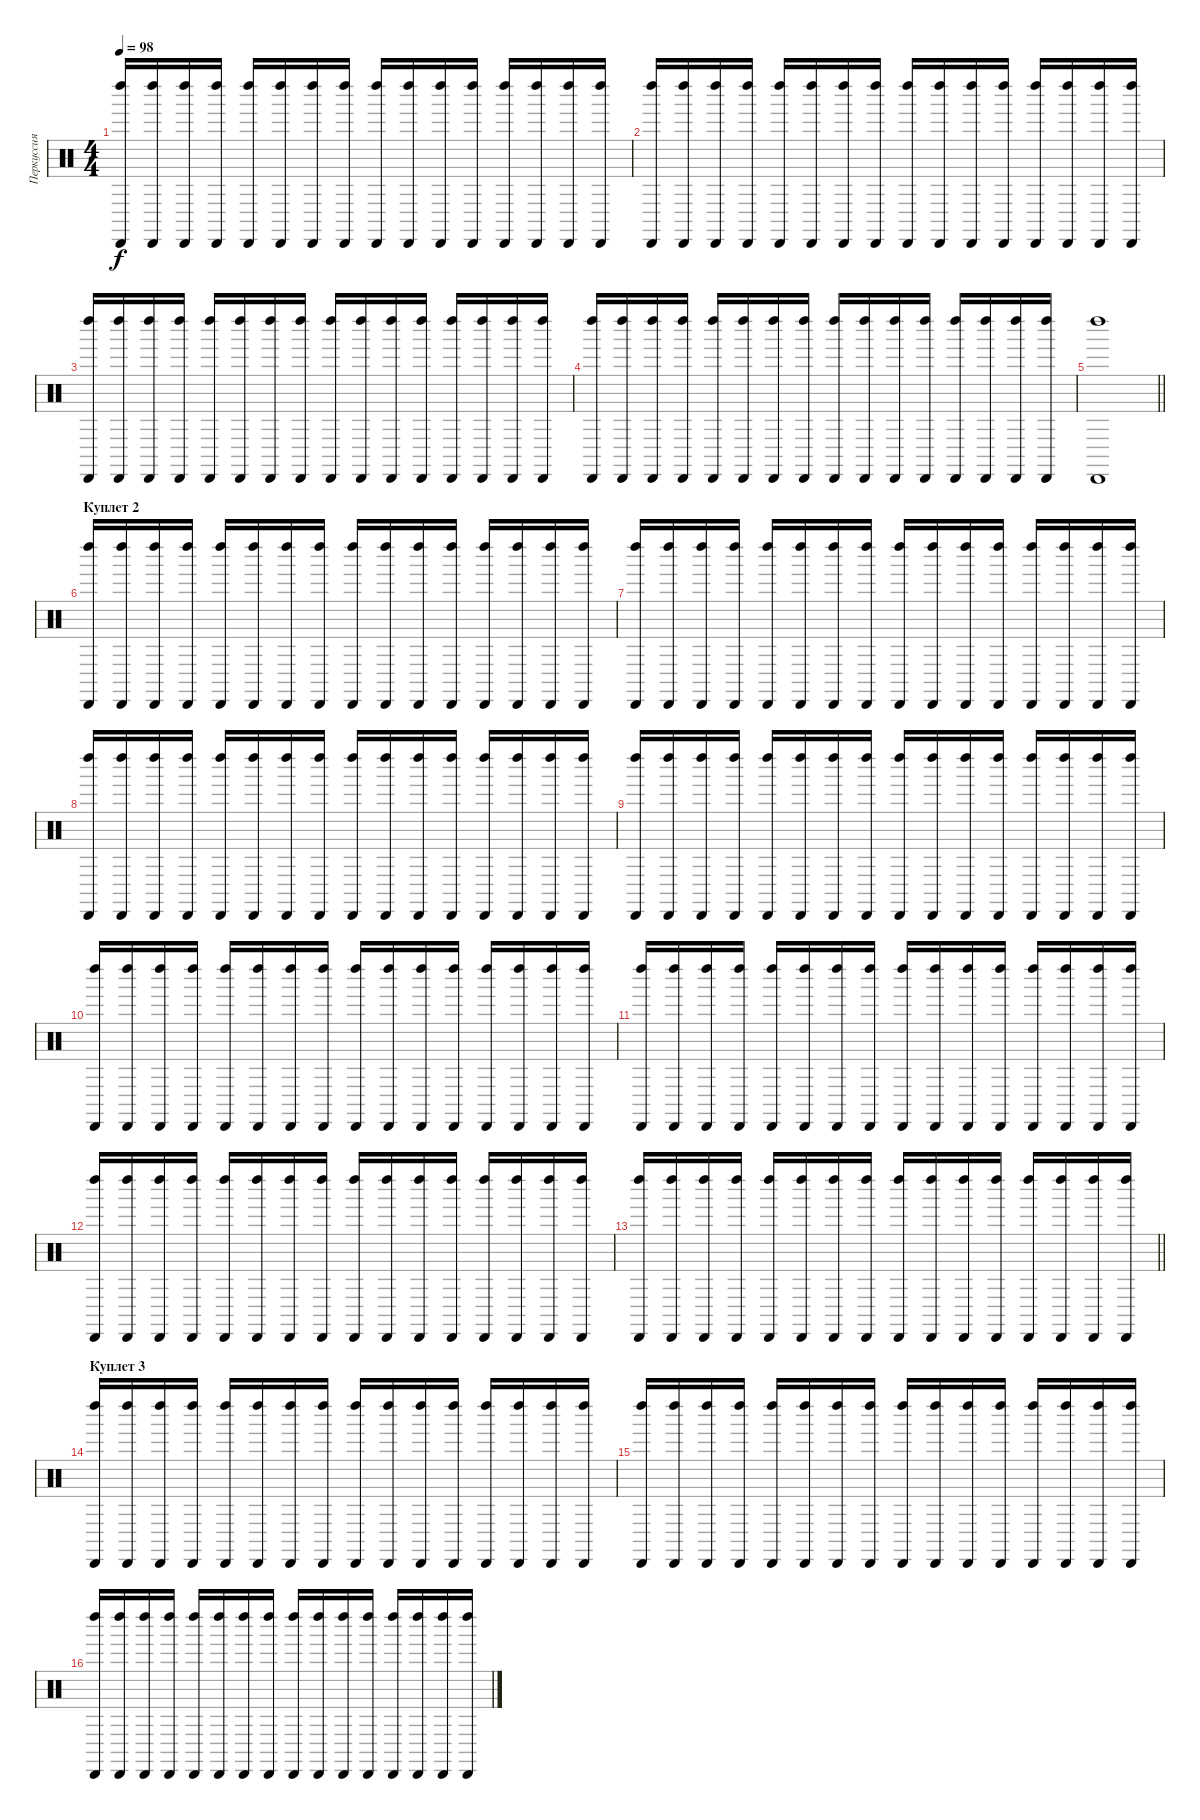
\track ("Перкуссия" "Перкуссия") {instrument percussion}
\staff {score}
\articulation defaults
\ts (4 4)
\tempo 98
\clef neutral
\ks c
("Cabasa (hit)" "Left Maraca (hit)").16{dy f} ("Cabasa (hit)" "Left Maraca (hit)").16 ("Cabasa (hit)" "Left Maraca (hit)").16 ("Cabasa (hit)" "Left Maraca (hit)").16 ("Cabasa (hit)" "Left Maraca (hit)").16 ("Cabasa (hit)" "Left Maraca (hit)").16 ("Cabasa (hit)" "Left Maraca (hit)").16 ("Cabasa (hit)" "Left Maraca (hit)").16 ("Cabasa (hit)" "Left Maraca (hit)").16 ("Cabasa (hit)" "Left Maraca (hit)").16 ("Cabasa (hit)" "Left Maraca (hit)").16 ("Cabasa (hit)" "Left Maraca (hit)").16 ("Cabasa (hit)" "Left Maraca (hit)").16 ("Cabasa (hit)" "Left Maraca (hit)").16 ("Cabasa (hit)" "Left Maraca (hit)").16 ("Cabasa (hit)" "Left Maraca (hit)").16 |
("Cabasa (hit)" "Left Maraca (hit)").16 ("Cabasa (hit)" "Left Maraca (hit)").16 ("Cabasa (hit)" "Left Maraca (hit)").16 ("Cabasa (hit)" "Left Maraca (hit)").16 ("Cabasa (hit)" "Left Maraca (hit)").16 ("Cabasa (hit)" "Left Maraca (hit)").16 ("Cabasa (hit)" "Left Maraca (hit)").16 ("Cabasa (hit)" "Left Maraca (hit)").16 ("Cabasa (hit)" "Left Maraca (hit)").16 ("Cabasa (hit)" "Left Maraca (hit)").16 ("Cabasa (hit)" "Left Maraca (hit)").16 ("Cabasa (hit)" "Left Maraca (hit)").16 ("Cabasa (hit)" "Left Maraca (hit)").16 ("Cabasa (hit)" "Left Maraca (hit)").16 ("Cabasa (hit)" "Left Maraca (hit)").16 ("Cabasa (hit)" "Left Maraca (hit)").16 |
("Cabasa (hit)" "Left Maraca (hit)").16 ("Cabasa (hit)" "Left Maraca (hit)").16 ("Cabasa (hit)" "Left Maraca (hit)").16 ("Cabasa (hit)" "Left Maraca (hit)").16 ("Cabasa (hit)" "Left Maraca (hit)").16 ("Cabasa (hit)" "Left Maraca (hit)").16 ("Cabasa (hit)" "Left Maraca (hit)").16 ("Cabasa (hit)" "Left Maraca (hit)").16 ("Cabasa (hit)" "Left Maraca (hit)").16 ("Cabasa (hit)" "Left Maraca (hit)").16 ("Cabasa (hit)" "Left Maraca (hit)").16 ("Cabasa (hit)" "Left Maraca (hit)").16 ("Cabasa (hit)" "Left Maraca (hit)").16 ("Cabasa (hit)" "Left Maraca (hit)").16 ("Cabasa (hit)" "Left Maraca (hit)").16 ("Cabasa (hit)" "Left Maraca (hit)").16 |
("Cabasa (hit)" "Left Maraca (hit)").16 ("Cabasa (hit)" "Left Maraca (hit)").16 ("Cabasa (hit)" "Left Maraca (hit)").16 ("Cabasa (hit)" "Left Maraca (hit)").16 ("Cabasa (hit)" "Left Maraca (hit)").16 ("Cabasa (hit)" "Left Maraca (hit)").16 ("Cabasa (hit)" "Left Maraca (hit)").16 ("Cabasa (hit)" "Left Maraca (hit)").16 ("Cabasa (hit)" "Left Maraca (hit)").16 ("Cabasa (hit)" "Left Maraca (hit)").16 ("Cabasa (hit)" "Left Maraca (hit)").16 ("Cabasa (hit)" "Left Maraca (hit)").16 ("Cabasa (hit)" "Left Maraca (hit)").16 ("Cabasa (hit)" "Left Maraca (hit)").16 ("Cabasa (hit)" "Left Maraca (hit)").16 ("Cabasa (hit)" "Left Maraca (hit)").16 |
\barLineRight lightlight
("Cabasa (hit)" "Left Maraca (hit)").1 |
\section ("" "Куплет 2")
("Cabasa (hit)" "Left Maraca (hit)").16 ("Cabasa (hit)" "Left Maraca (hit)").16 ("Cabasa (hit)" "Left Maraca (hit)").16 ("Cabasa (hit)" "Left Maraca (hit)").16 ("Cabasa (hit)" "Left Maraca (hit)").16 ("Cabasa (hit)" "Left Maraca (hit)").16 ("Cabasa (hit)" "Left Maraca (hit)").16 ("Cabasa (hit)" "Left Maraca (hit)").16 ("Cabasa (hit)" "Left Maraca (hit)").16 ("Cabasa (hit)" "Left Maraca (hit)").16 ("Cabasa (hit)" "Left Maraca (hit)").16 ("Cabasa (hit)" "Left Maraca (hit)").16 ("Cabasa (hit)" "Left Maraca (hit)").16 ("Cabasa (hit)" "Left Maraca (hit)").16 ("Cabasa (hit)" "Left Maraca (hit)").16 ("Cabasa (hit)" "Left Maraca (hit)").16 |
("Cabasa (hit)" "Left Maraca (hit)").16 ("Cabasa (hit)" "Left Maraca (hit)").16 ("Cabasa (hit)" "Left Maraca (hit)").16 ("Cabasa (hit)" "Left Maraca (hit)").16 ("Cabasa (hit)" "Left Maraca (hit)").16 ("Cabasa (hit)" "Left Maraca (hit)").16 ("Cabasa (hit)" "Left Maraca (hit)").16 ("Cabasa (hit)" "Left Maraca (hit)").16 ("Cabasa (hit)" "Left Maraca (hit)").16 ("Cabasa (hit)" "Left Maraca (hit)").16 ("Cabasa (hit)" "Left Maraca (hit)").16 ("Cabasa (hit)" "Left Maraca (hit)").16 ("Cabasa (hit)" "Left Maraca (hit)").16 ("Cabasa (hit)" "Left Maraca (hit)").16 ("Cabasa (hit)" "Left Maraca (hit)").16 ("Cabasa (hit)" "Left Maraca (hit)").16 |
("Cabasa (hit)" "Left Maraca (hit)").16 ("Cabasa (hit)" "Left Maraca (hit)").16 ("Cabasa (hit)" "Left Maraca (hit)").16 ("Cabasa (hit)" "Left Maraca (hit)").16 ("Cabasa (hit)" "Left Maraca (hit)").16 ("Cabasa (hit)" "Left Maraca (hit)").16 ("Cabasa (hit)" "Left Maraca (hit)").16 ("Cabasa (hit)" "Left Maraca (hit)").16 ("Cabasa (hit)" "Left Maraca (hit)").16 ("Cabasa (hit)" "Left Maraca (hit)").16 ("Cabasa (hit)" "Left Maraca (hit)").16 ("Cabasa (hit)" "Left Maraca (hit)").16 ("Cabasa (hit)" "Left Maraca (hit)").16 ("Cabasa (hit)" "Left Maraca (hit)").16 ("Cabasa (hit)" "Left Maraca (hit)").16 ("Cabasa (hit)" "Left Maraca (hit)").16 |
("Cabasa (hit)" "Left Maraca (hit)").16 ("Cabasa (hit)" "Left Maraca (hit)").16 ("Cabasa (hit)" "Left Maraca (hit)").16 ("Cabasa (hit)" "Left Maraca (hit)").16 ("Cabasa (hit)" "Left Maraca (hit)").16 ("Cabasa (hit)" "Left Maraca (hit)").16 ("Cabasa (hit)" "Left Maraca (hit)").16 ("Cabasa (hit)" "Left Maraca (hit)").16 ("Cabasa (hit)" "Left Maraca (hit)").16 ("Cabasa (hit)" "Left Maraca (hit)").16 ("Cabasa (hit)" "Left Maraca (hit)").16 ("Cabasa (hit)" "Left Maraca (hit)").16 ("Cabasa (hit)" "Left Maraca (hit)").16 ("Cabasa (hit)" "Left Maraca (hit)").16 ("Cabasa (hit)" "Left Maraca (hit)").16 ("Cabasa (hit)" "Left Maraca (hit)").16 |
("Cabasa (hit)" "Left Maraca (hit)").16 ("Cabasa (hit)" "Left Maraca (hit)").16 ("Cabasa (hit)" "Left Maraca (hit)").16 ("Cabasa (hit)" "Left Maraca (hit)").16 ("Cabasa (hit)" "Left Maraca (hit)").16 ("Cabasa (hit)" "Left Maraca (hit)").16 ("Cabasa (hit)" "Left Maraca (hit)").16 ("Cabasa (hit)" "Left Maraca (hit)").16 ("Cabasa (hit)" "Left Maraca (hit)").16 ("Cabasa (hit)" "Left Maraca (hit)").16 ("Cabasa (hit)" "Left Maraca (hit)").16 ("Cabasa (hit)" "Left Maraca (hit)").16 ("Cabasa (hit)" "Left Maraca (hit)").16 ("Cabasa (hit)" "Left Maraca (hit)").16 ("Cabasa (hit)" "Left Maraca (hit)").16 ("Cabasa (hit)" "Left Maraca (hit)").16 |
("Cabasa (hit)" "Left Maraca (hit)").16 ("Cabasa (hit)" "Left Maraca (hit)").16 ("Cabasa (hit)" "Left Maraca (hit)").16 ("Cabasa (hit)" "Left Maraca (hit)").16 ("Cabasa (hit)" "Left Maraca (hit)").16 ("Cabasa (hit)" "Left Maraca (hit)").16 ("Cabasa (hit)" "Left Maraca (hit)").16 ("Cabasa (hit)" "Left Maraca (hit)").16 ("Cabasa (hit)" "Left Maraca (hit)").16 ("Cabasa (hit)" "Left Maraca (hit)").16 ("Cabasa (hit)" "Left Maraca (hit)").16 ("Cabasa (hit)" "Left Maraca (hit)").16 ("Cabasa (hit)" "Left Maraca (hit)").16 ("Cabasa (hit)" "Left Maraca (hit)").16 ("Cabasa (hit)" "Left Maraca (hit)").16 ("Cabasa (hit)" "Left Maraca (hit)").16 |
("Cabasa (hit)" "Left Maraca (hit)").16 ("Cabasa (hit)" "Left Maraca (hit)").16 ("Cabasa (hit)" "Left Maraca (hit)").16 ("Cabasa (hit)" "Left Maraca (hit)").16 ("Cabasa (hit)" "Left Maraca (hit)").16 ("Cabasa (hit)" "Left Maraca (hit)").16 ("Cabasa (hit)" "Left Maraca (hit)").16 ("Cabasa (hit)" "Left Maraca (hit)").16 ("Cabasa (hit)" "Left Maraca (hit)").16 ("Cabasa (hit)" "Left Maraca (hit)").16 ("Cabasa (hit)" "Left Maraca (hit)").16 ("Cabasa (hit)" "Left Maraca (hit)").16 ("Cabasa (hit)" "Left Maraca (hit)").16 ("Cabasa (hit)" "Left Maraca (hit)").16 ("Cabasa (hit)" "Left Maraca (hit)").16 ("Cabasa (hit)" "Left Maraca (hit)").16 |
\barLineRight lightlight
("Cabasa (hit)" "Left Maraca (hit)").16 ("Cabasa (hit)" "Left Maraca (hit)").16 ("Cabasa (hit)" "Left Maraca (hit)").16 ("Cabasa (hit)" "Left Maraca (hit)").16 ("Cabasa (hit)" "Left Maraca (hit)").16 ("Cabasa (hit)" "Left Maraca (hit)").16 ("Cabasa (hit)" "Left Maraca (hit)").16 ("Cabasa (hit)" "Left Maraca (hit)").16 ("Cabasa (hit)" "Left Maraca (hit)").16 ("Cabasa (hit)" "Left Maraca (hit)").16 ("Cabasa (hit)" "Left Maraca (hit)").16 ("Cabasa (hit)" "Left Maraca (hit)").16 ("Cabasa (hit)" "Left Maraca (hit)").16 ("Cabasa (hit)" "Left Maraca (hit)").16 ("Cabasa (hit)" "Left Maraca (hit)").16 ("Cabasa (hit)" "Left Maraca (hit)").16 |
\section ("" "Куплет 3")
("Cabasa (hit)" "Left Maraca (hit)").16 ("Cabasa (hit)" "Left Maraca (hit)").16 ("Cabasa (hit)" "Left Maraca (hit)").16 ("Cabasa (hit)" "Left Maraca (hit)").16 ("Cabasa (hit)" "Left Maraca (hit)").16 ("Cabasa (hit)" "Left Maraca (hit)").16 ("Cabasa (hit)" "Left Maraca (hit)").16 ("Cabasa (hit)" "Left Maraca (hit)").16 ("Cabasa (hit)" "Left Maraca (hit)").16 ("Cabasa (hit)" "Left Maraca (hit)").16 ("Cabasa (hit)" "Left Maraca (hit)").16 ("Cabasa (hit)" "Left Maraca (hit)").16 ("Cabasa (hit)" "Left Maraca (hit)").16 ("Cabasa (hit)" "Left Maraca (hit)").16 ("Cabasa (hit)" "Left Maraca (hit)").16 ("Cabasa (hit)" "Left Maraca (hit)").16 |
("Cabasa (hit)" "Left Maraca (hit)").16 ("Cabasa (hit)" "Left Maraca (hit)").16 ("Cabasa (hit)" "Left Maraca (hit)").16 ("Cabasa (hit)" "Left Maraca (hit)").16 ("Cabasa (hit)" "Left Maraca (hit)").16 ("Cabasa (hit)" "Left Maraca (hit)").16 ("Cabasa (hit)" "Left Maraca (hit)").16 ("Cabasa (hit)" "Left Maraca (hit)").16 ("Cabasa (hit)" "Left Maraca (hit)").16 ("Cabasa (hit)" "Left Maraca (hit)").16 ("Cabasa (hit)" "Left Maraca (hit)").16 ("Cabasa (hit)" "Left Maraca (hit)").16 ("Cabasa (hit)" "Left Maraca (hit)").16 ("Cabasa (hit)" "Left Maraca (hit)").16 ("Cabasa (hit)" "Left Maraca (hit)").16 ("Cabasa (hit)" "Left Maraca (hit)").16 |
("Cabasa (hit)" "Left Maraca (hit)").16 ("Cabasa (hit)" "Left Maraca (hit)").16 ("Cabasa (hit)" "Left Maraca (hit)").16 ("Cabasa (hit)" "Left Maraca (hit)").16 ("Cabasa (hit)" "Left Maraca (hit)").16 ("Cabasa (hit)" "Left Maraca (hit)").16 ("Cabasa (hit)" "Left Maraca (hit)").16 ("Cabasa (hit)" "Left Maraca (hit)").16 ("Cabasa (hit)" "Left Maraca (hit)").16 ("Cabasa (hit)" "Left Maraca (hit)").16 ("Cabasa (hit)" "Left Maraca (hit)").16 ("Cabasa (hit)" "Left Maraca (hit)").16 ("Cabasa (hit)" "Left Maraca (hit)").16 ("Cabasa (hit)" "Left Maraca (hit)").16 ("Cabasa (hit)" "Left Maraca (hit)").16 ("Cabasa (hit)" "Left Maraca (hit)").16
